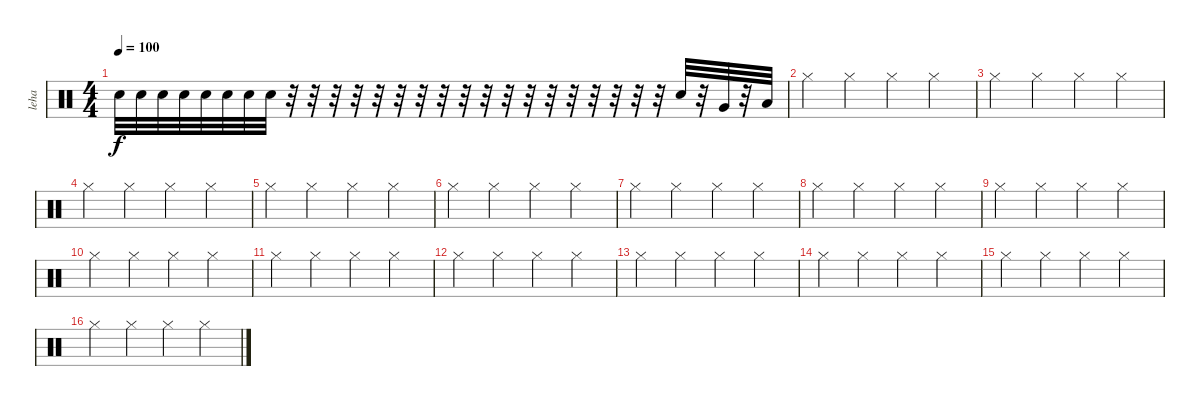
\track ("leha" "leha") {instrument percussion}
\staff {score}
\articulation defaults
\ts (4 4)
\tempo 100
\clef neutral
\ks c "Electric Snare (hit)".32{dy f} "Electric Snare (hit)".32 "Electric Snare (hit)".32 "Electric Snare (hit)".32 "Electric Snare (hit)".32 "Electric Snare (hit)".32 "Electric Snare (hit)".32 "Electric Snare (hit)".32
r.32 r.32 r.32 r.32 r.32 r.32 r.32 r.32 r.32 r.32 r.32 r.32 r.32 r.32 r.32 r.32 r.32 r.32 "Electric Snare (hit)".32 r.32 "Very Low Tom (hit)".32 r.32 "Low Floor Tom (hit)".32 |
"Hi-Hat (closed)".4 "Hi-Hat (closed)".4 "Hi-Hat (closed)".4 "Hi-Hat (closed)".4 |
"Hi-Hat (closed)".4 "Hi-Hat (closed)".4 "Hi-Hat (closed)".4 "Hi-Hat (closed)".4 |
"Hi-Hat (closed)".4 "Hi-Hat (closed)".4 "Hi-Hat (closed)".4 "Hi-Hat (closed)".4 |
"Hi-Hat (closed)".4 "Hi-Hat (closed)".4 "Hi-Hat (closed)".4 "Hi-Hat (closed)".4 |
"Hi-Hat (closed)".4 "Hi-Hat (closed)".4 "Hi-Hat (closed)".4 "Hi-Hat (closed)".4 |
"Hi-Hat (closed)".4 "Hi-Hat (closed)".4 "Hi-Hat (closed)".4 "Hi-Hat (closed)".4 |
"Hi-Hat (closed)".4 "Hi-Hat (closed)".4 "Hi-Hat (closed)".4 "Hi-Hat (closed)".4 |
"Hi-Hat (closed)".4 "Hi-Hat (closed)".4 "Hi-Hat (closed)".4 "Hi-Hat (closed)".4 |
"Hi-Hat (closed)".4 "Hi-Hat (closed)".4 "Hi-Hat (closed)".4 "Hi-Hat (closed)".4 |
"Hi-Hat (closed)".4 "Hi-Hat (closed)".4 "Hi-Hat (closed)".4 "Hi-Hat (closed)".4 |
"Hi-Hat (closed)".4 "Hi-Hat (closed)".4 "Hi-Hat (closed)".4 "Hi-Hat (closed)".4 |
"Hi-Hat (closed)".4 "Hi-Hat (closed)".4 "Hi-Hat (closed)".4 "Hi-Hat (closed)".4 |
"Hi-Hat (closed)".4 "Hi-Hat (closed)".4 "Hi-Hat (closed)".4 "Hi-Hat (closed)".4 |
"Hi-Hat (closed)".4 "Hi-Hat (closed)".4 "Hi-Hat (closed)".4 "Hi-Hat (closed)".4 |
"Hi-Hat (closed)".4 "Hi-Hat (closed)".4 "Hi-Hat (closed)".4 "Hi-Hat (closed)".4
